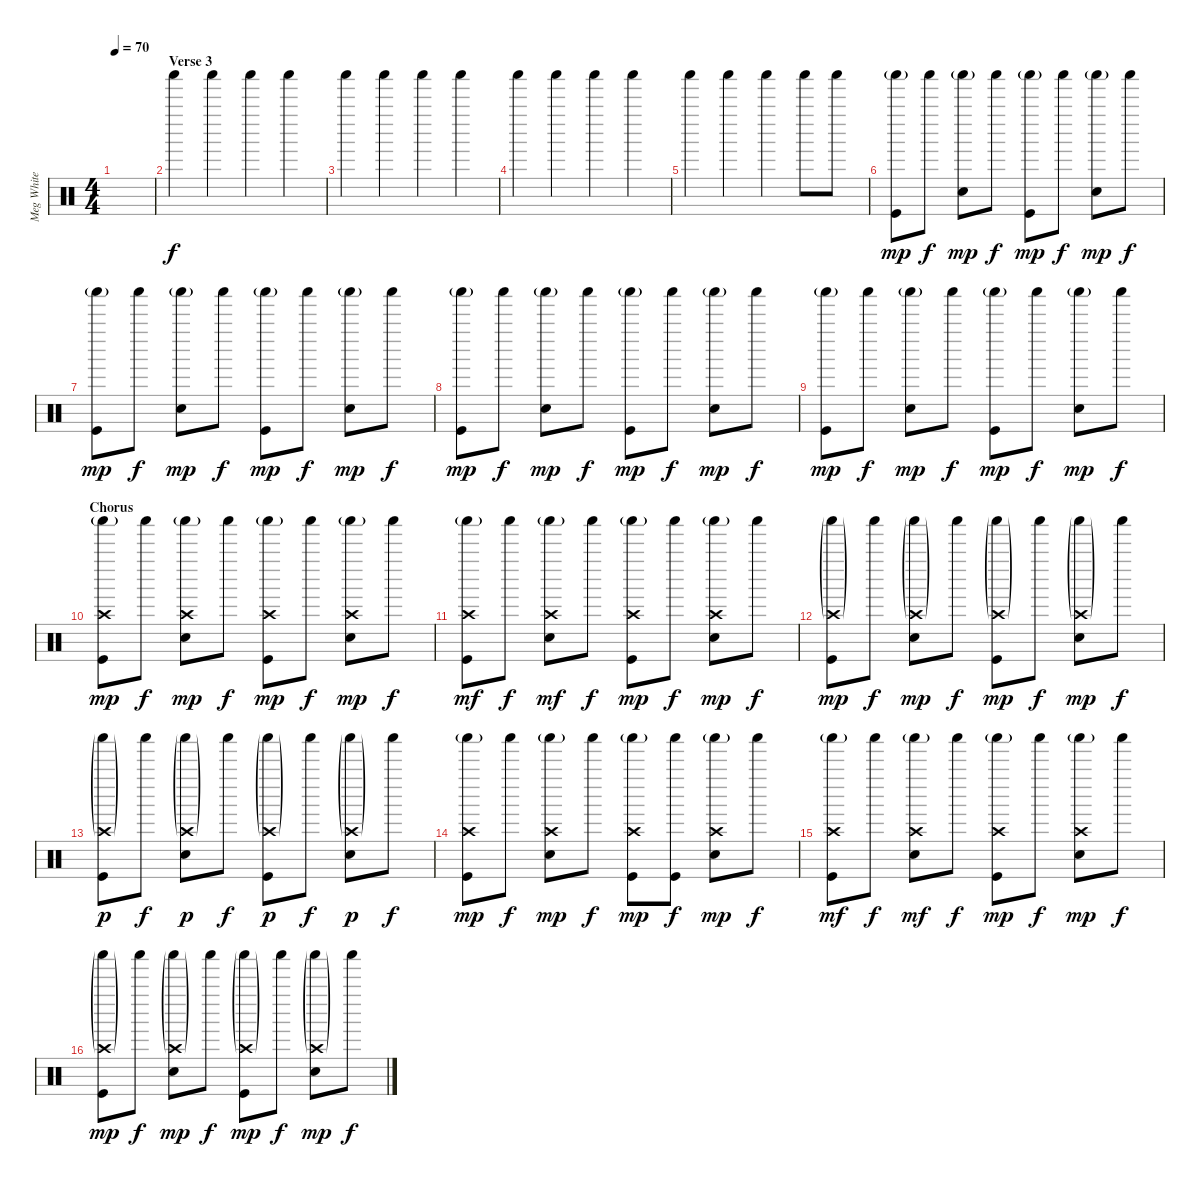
\track ("Meg White" "Meg White") {instrument percussion}
\staff {score}
\articulation defaults
\ts (4 4)
\tempo 70
\clef neutral
\ks c
|
\section ("" "Verse 3")
"Shaker (hit)".4 "Shaker (hit)".4 "Shaker (hit)".4 "Shaker (hit)".4 |
"Shaker (hit)".4 "Shaker (hit)".4 "Shaker (hit)".4 "Shaker (hit)".4 |
"Shaker (hit)".4 "Shaker (hit)".4 "Shaker (hit)".4 "Shaker (hit)".4 |
"Shaker (hit)".4 "Shaker (hit)".4 "Shaker (hit)".4 "Shaker (hit)".8 "Shaker (hit)".8 |
("Kick (hit)" "Shaker (hit)"{g}).8{dy mp} "Shaker (hit)".8{dy f} ("Snare (hit) 2" "Shaker (hit)"{g}).8{dy mp} "Shaker (hit)".8{dy f} ("Kick (hit)" "Shaker (hit)"{g}).8{dy mp} "Shaker (hit)".8{dy f} ("Snare (hit) 2" "Shaker (hit)"{g}).8{dy mp} "Shaker (hit)".8{dy f} |
("Kick (hit)" "Shaker (hit)"{g}).8{dy mp} "Shaker (hit)".8{dy f} ("Snare (hit) 2" "Shaker (hit)"{g}).8{dy mp} "Shaker (hit)".8{dy f} ("Kick (hit)" "Shaker (hit)"{g}).8{dy mp} "Shaker (hit)".8{dy f} ("Snare (hit) 2" "Shaker (hit)"{g}).8{dy mp} "Shaker (hit)".8{dy f} |
("Kick (hit)" "Shaker (hit)"{g}).8{dy mp} "Shaker (hit)".8{dy f} ("Snare (hit) 2" "Shaker (hit)"{g}).8{dy mp} "Shaker (hit)".8{dy f} ("Kick (hit)" "Shaker (hit)"{g}).8{dy mp} "Shaker (hit)".8{dy f} ("Snare (hit) 2" "Shaker (hit)"{g}).8{dy mp} "Shaker (hit)".8{dy f} |
("Kick (hit)" "Shaker (hit)"{g}).8{dy mp} "Shaker (hit)".8{dy f} ("Snare (hit) 2" "Shaker (hit)"{g}).8{dy mp} "Shaker (hit)".8{dy f} ("Kick (hit)" "Shaker (hit)"{g}).8{dy mp} "Shaker (hit)".8{dy f} ("Snare (hit) 2" "Shaker (hit)"{g}).8{dy mp} "Shaker (hit)".8{dy f} |
\section ("" "Chorus")
("Kick (hit)" "Shaker (hit)"{g} "Crash high (hit)").8{dy mp} "Shaker (hit)".8{dy f} ("Snare (hit) 2" "Shaker (hit)"{g} "Crash high (hit)").8{dy mp} "Shaker (hit)".8{dy f} ("Kick (hit)" "Shaker (hit)"{g} "Crash high (hit)").8{dy mp} "Shaker (hit)".8{dy f} ("Snare (hit) 2" "Shaker (hit)"{g} "Crash high (hit)").8{dy mp} "Shaker (hit)".8{dy f} |
("Kick (hit)" "Shaker (hit)"{g} "Crash high (hit)").8{dy mf} "Shaker (hit)".8{dy f} ("Snare (hit) 2" "Shaker (hit)"{g} "Crash high (hit)").8{dy mf} "Shaker (hit)".8{dy f} ("Kick (hit)" "Shaker (hit)"{g} "Crash high (hit)").8{dy mp} "Shaker (hit)".8{dy f} ("Snare (hit) 2" "Shaker (hit)"{g} "Crash high (hit)").8{dy mp} "Shaker (hit)".8{dy f} |
("Kick (hit)" "Shaker (hit)"{g} "Crash high (hit)"{g}).8{dy mp} "Shaker (hit)".8{dy f} ("Snare (hit) 2" "Shaker (hit)"{g} "Crash high (hit)"{g}).8{dy mp} "Shaker (hit)".8{dy f} ("Kick (hit)" "Shaker (hit)"{g} "Crash high (hit)"{g}).8{dy mp} "Shaker (hit)".8{dy f} ("Snare (hit) 2" "Shaker (hit)"{g} "Crash high (hit)"{g}).8{dy mp} "Shaker (hit)".8{dy f} |
("Kick (hit)" "Shaker (hit)"{g} "Crash high (hit)"{g}).8{dy p} "Shaker (hit)".8{dy f} ("Snare (hit) 2" "Shaker (hit)"{g} "Crash high (hit)"{g}).8{dy p} "Shaker (hit)".8{dy f} ("Kick (hit)" "Shaker (hit)"{g} "Crash high (hit)"{g}).8{dy p} "Shaker (hit)".8{dy f} ("Snare (hit) 2" "Shaker (hit)"{g} "Crash high (hit)"{g}).8{dy p} "Shaker (hit)".8{dy f} |
("Kick (hit)" "Shaker (hit)"{g} "Crash high (hit)").8{dy mp} "Shaker (hit)".8{dy f} ("Snare (hit) 2" "Shaker (hit)"{g} "Crash high (hit)").8{dy mp} "Shaker (hit)".8{dy f} ("Kick (hit)" "Shaker (hit)"{g} "Crash high (hit)").8{dy mp} ("Kick (hit)" "Shaker (hit)").8{dy f} ("Snare (hit) 2" "Shaker (hit)"{g} "Crash high (hit)").8{dy mp} "Shaker (hit)".8{dy f} |
("Kick (hit)" "Shaker (hit)"{g} "Crash high (hit)").8{dy mf} "Shaker (hit)".8{dy f} ("Snare (hit) 2" "Shaker (hit)"{g} "Crash high (hit)").8{dy mf} "Shaker (hit)".8{dy f} ("Kick (hit)" "Shaker (hit)"{g} "Crash high (hit)").8{dy mp} "Shaker (hit)".8{dy f} ("Snare (hit) 2" "Shaker (hit)"{g} "Crash high (hit)").8{dy mp} "Shaker (hit)".8{dy f} |
("Kick (hit)" "Shaker (hit)"{g} "Crash high (hit)"{g}).8{dy mp} "Shaker (hit)".8{dy f} ("Snare (hit) 2" "Shaker (hit)"{g} "Crash high (hit)"{g}).8{dy mp} "Shaker (hit)".8{dy f} ("Kick (hit)" "Shaker (hit)"{g} "Crash high (hit)"{g}).8{dy mp} "Shaker (hit)".8{dy f} ("Snare (hit) 2" "Shaker (hit)"{g} "Crash high (hit)"{g}).8{dy mp} "Shaker (hit)".8{dy f}
